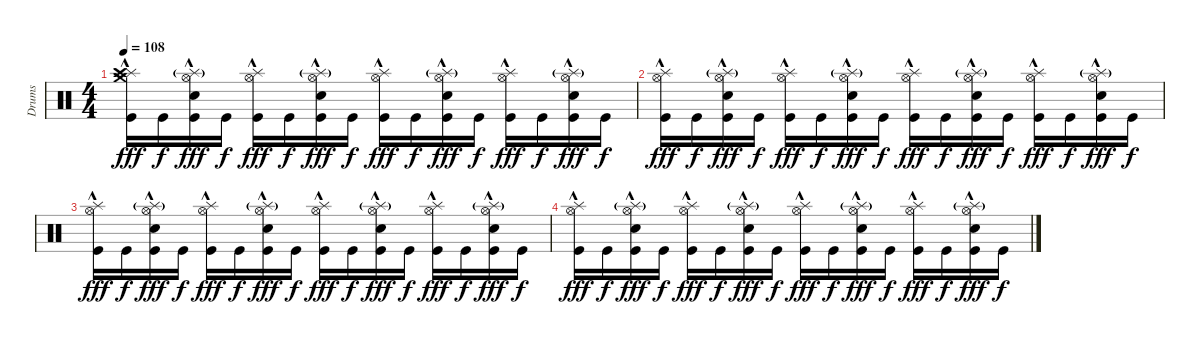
\track ("Drums" "Drums") {instrument percussion}
\staff {score}
\articulation defaults
\ts (4 4)
\tempo 108
\clef neutral
\ks c
("Crash medium (hit)" "Splash (hit)" "Crash high (hit)" "Kick (hit)"{hac}).16{dy fff} "Kick (hit)".16{dy f} ("Hi-Hat (open)" "Splash (hit)"{g} "Electric Snare (hit)" "Kick (hit)"{hac}).16{dy fff} "Kick (hit)".16{dy f} ("Hi-Hat (open)" "Splash (hit)" "Kick (hit)"{hac}).16{dy fff} "Kick (hit)".16{dy f} ("Hi-Hat (open)" "Splash (hit)"{g} "Electric Snare (hit)" "Kick (hit)"{hac}).16{dy fff} "Kick (hit)".16{dy f} ("Hi-Hat (open)" "Splash (hit)" "Kick (hit)"{hac}).16{dy fff} "Kick (hit)".16{dy f} ("Hi-Hat (open)" "Splash (hit)"{g} "Electric Snare (hit)" "Kick (hit)"{hac}).16{dy fff} "Kick (hit)".16{dy f} ("Hi-Hat (open)" "Splash (hit)" "Kick (hit)"{hac}).16{dy fff} "Kick (hit)".16{dy f} ("Hi-Hat (open)" "Splash (hit)"{g} "Electric Snare (hit)" "Kick (hit)"{hac}).16{dy fff} "Kick (hit)".16{dy f} |
("Hi-Hat (open)" "Splash (hit)" "Kick (hit)"{hac}).16{dy fff} "Kick (hit)".16{dy f} ("Hi-Hat (open)" "Splash (hit)"{g} "Electric Snare (hit)" "Kick (hit)"{hac}).16{dy fff} "Kick (hit)".16{dy f} ("Hi-Hat (open)" "Splash (hit)" "Kick (hit)"{hac}).16{dy fff} "Kick (hit)".16{dy f} ("Hi-Hat (open)" "Splash (hit)"{g} "Electric Snare (hit)" "Kick (hit)"{hac}).16{dy fff} "Kick (hit)".16{dy f} ("Hi-Hat (open)" "Splash (hit)" "Kick (hit)"{hac}).16{dy fff} "Kick (hit)".16{dy f} ("Hi-Hat (open)" "Splash (hit)"{g} "Electric Snare (hit)" "Kick (hit)"{hac}).16{dy fff} "Kick (hit)".16{dy f} ("Hi-Hat (open)" "Splash (hit)" "Kick (hit)"{hac}).16{dy fff} "Kick (hit)".16{dy f} ("Hi-Hat (open)" "Splash (hit)"{g} "Electric Snare (hit)" "Kick (hit)"{hac}).16{dy fff} "Kick (hit)".16{dy f} |
("Hi-Hat (open)" "Splash (hit)" "Kick (hit)"{hac}).16{dy fff} "Kick (hit)".16{dy f} ("Hi-Hat (open)" "Splash (hit)"{g} "Electric Snare (hit)" "Kick (hit)"{hac}).16{dy fff} "Kick (hit)".16{dy f} ("Hi-Hat (open)" "Splash (hit)" "Kick (hit)"{hac}).16{dy fff} "Kick (hit)".16{dy f} ("Hi-Hat (open)" "Splash (hit)"{g} "Electric Snare (hit)" "Kick (hit)"{hac}).16{dy fff} "Kick (hit)".16{dy f} ("Hi-Hat (open)" "Splash (hit)" "Kick (hit)"{hac}).16{dy fff} "Kick (hit)".16{dy f} ("Hi-Hat (open)" "Splash (hit)"{g} "Electric Snare (hit)" "Kick (hit)"{hac}).16{dy fff} "Kick (hit)".16{dy f} ("Hi-Hat (open)" "Splash (hit)" "Kick (hit)"{hac}).16{dy fff} "Kick (hit)".16{dy f} ("Hi-Hat (open)" "Splash (hit)"{g} "Electric Snare (hit)" "Kick (hit)"{hac}).16{dy fff} "Kick (hit)".16{dy f} |
("Hi-Hat (open)" "Splash (hit)" "Kick (hit)"{hac}).16{dy fff} "Kick (hit)".16{dy f} ("Hi-Hat (open)" "Splash (hit)"{g} "Electric Snare (hit)" "Kick (hit)"{hac}).16{dy fff} "Kick (hit)".16{dy f} ("Hi-Hat (open)" "Splash (hit)" "Kick (hit)"{hac}).16{dy fff} "Kick (hit)".16{dy f} ("Hi-Hat (open)" "Splash (hit)"{g} "Electric Snare (hit)" "Kick (hit)"{hac}).16{dy fff} "Kick (hit)".16{dy f} ("Hi-Hat (open)" "Splash (hit)" "Kick (hit)"{hac}).16{dy fff} "Kick (hit)".16{dy f} ("Hi-Hat (open)" "Splash (hit)"{g} "Electric Snare (hit)" "Kick (hit)"{hac}).16{dy fff} "Kick (hit)".16{dy f} ("Hi-Hat (open)" "Splash (hit)" "Kick (hit)"{hac}).16{dy fff} "Kick (hit)".16{dy f} ("Hi-Hat (open)" "Splash (hit)"{g} "Electric Snare (hit)" "Kick (hit)"{hac}).16{dy fff} "Kick (hit)".16{dy f}
